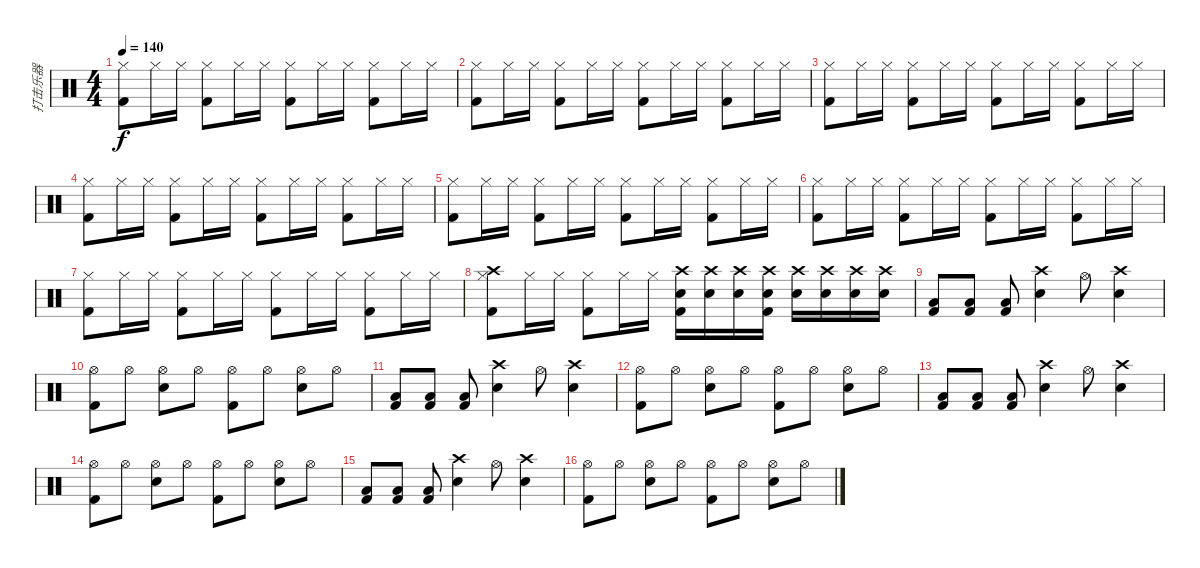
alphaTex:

\track ("打击乐器" "打击乐器") {instrument percussion}
\staff {score}
\articulation defaults
\ts (4 4)
\tempo 140
\clef neutral
\ks c
("Hi-Hat (closed)" "Kick (hit) 2").8{dy f} "Hi-Hat (closed)".16 "Hi-Hat (closed)".16 ("Hi-Hat (closed)" "Kick (hit) 2").8 "Hi-Hat (closed)".16 "Hi-Hat (closed)".16 ("Hi-Hat (closed)" "Kick (hit) 2").8 "Hi-Hat (closed)".16 "Hi-Hat (closed)".16 ("Hi-Hat (closed)" "Kick (hit) 2").8 "Hi-Hat (closed)".16 "Hi-Hat (closed)".16 |
("Hi-Hat (closed)" "Kick (hit) 2").8 "Hi-Hat (closed)".16 "Hi-Hat (closed)".16 ("Hi-Hat (closed)" "Kick (hit) 2").8 "Hi-Hat (closed)".16 "Hi-Hat (closed)".16 ("Hi-Hat (closed)" "Kick (hit) 2").8 "Hi-Hat (closed)".16 "Hi-Hat (closed)".16 ("Hi-Hat (closed)" "Kick (hit) 2").8 "Hi-Hat (closed)".16 "Hi-Hat (closed)".16 |
("Hi-Hat (closed)" "Kick (hit) 2").8 "Hi-Hat (closed)".16 "Hi-Hat (closed)".16 ("Hi-Hat (closed)" "Kick (hit) 2").8 "Hi-Hat (closed)".16 "Hi-Hat (closed)".16 ("Hi-Hat (closed)" "Kick (hit) 2").8 "Hi-Hat (closed)".16 "Hi-Hat (closed)".16 ("Hi-Hat (closed)" "Kick (hit) 2").8 "Hi-Hat (closed)".16 "Hi-Hat (closed)".16 |
("Hi-Hat (closed)" "Kick (hit) 2").8 "Hi-Hat (closed)".16 "Hi-Hat (closed)".16 ("Hi-Hat (closed)" "Kick (hit) 2").8 "Hi-Hat (closed)".16 "Hi-Hat (closed)".16 ("Hi-Hat (closed)" "Kick (hit) 2").8 "Hi-Hat (closed)".16 "Hi-Hat (closed)".16 ("Hi-Hat (closed)" "Kick (hit) 2").8 "Hi-Hat (closed)".16 "Hi-Hat (closed)".16 |
("Hi-Hat (closed)" "Kick (hit) 2").8 "Hi-Hat (closed)".16 "Hi-Hat (closed)".16 ("Hi-Hat (closed)" "Kick (hit) 2").8 "Hi-Hat (closed)".16 "Hi-Hat (closed)".16 ("Hi-Hat (closed)" "Kick (hit) 2").8 "Hi-Hat (closed)".16 "Hi-Hat (closed)".16 ("Hi-Hat (closed)" "Kick (hit) 2").8 "Hi-Hat (closed)".16 "Hi-Hat (closed)".16 |
("Hi-Hat (closed)" "Kick (hit) 2").8 "Hi-Hat (closed)".16 "Hi-Hat (closed)".16 ("Hi-Hat (closed)" "Kick (hit) 2").8 "Hi-Hat (closed)".16 "Hi-Hat (closed)".16 ("Hi-Hat (closed)" "Kick (hit) 2").8 "Hi-Hat (closed)".16 "Hi-Hat (closed)".16 ("Hi-Hat (closed)" "Kick (hit) 2").8 "Hi-Hat (closed)".16 "Hi-Hat (closed)".16 |
("Hi-Hat (closed)" "Kick (hit) 2").8 "Hi-Hat (closed)".16 "Hi-Hat (closed)".16 ("Hi-Hat (closed)" "Kick (hit) 2").8 "Hi-Hat (closed)".16 "Hi-Hat (closed)".16 ("Hi-Hat (closed)" "Kick (hit) 2").8 "Hi-Hat (closed)".16 "Hi-Hat (closed)".16 ("Hi-Hat (closed)" "Kick (hit) 2").8 "Hi-Hat (closed)".16 "Hi-Hat (closed)".16 |
("Crash high (hit)" "Hi-Hat (closed)" "Kick (hit) 2").8 "Hi-Hat (closed)".16 "Hi-Hat (closed)".16 ("Hi-Hat (closed)" "Kick (hit) 2").8 "Hi-Hat (closed)".16 "Hi-Hat (closed)".16 ("Crash high (hit)" "Snare (hit) 2" "Kick (hit) 2").16 ("Crash high (hit)" "Snare (hit) 2").16 ("Crash high (hit)" "Snare (hit) 2").16 ("Crash high (hit)" "Snare (hit) 2" "Kick (hit) 2").16 ("Crash high (hit)" "Snare (hit) 2").16 ("Crash high (hit)" "Snare (hit) 2").16 ("Crash high (hit)" "Snare (hit) 2").16 ("Crash high (hit)" "Snare (hit) 2").16 |
("Low Floor Tom (hit)" "Kick (hit) 2").8 ("Low Floor Tom (hit)" "Kick (hit) 2").8 ("Low Floor Tom (hit)" "Kick (hit) 2").8 ("Crash high (hit)" "Snare (hit) 2").4 "Hi-Hat (open)".8 ("Crash high (hit)" "Snare (hit) 2").4 |
("Hi-Hat (open)" "Kick (hit) 2").8 "Hi-Hat (open)".8 ("Hi-Hat (open)" "Snare (hit) 2").8 "Hi-Hat (open)".8 ("Hi-Hat (open)" "Kick (hit) 2").8 "Hi-Hat (open)".8 ("Hi-Hat (open)" "Snare (hit) 2").8 "Hi-Hat (open)".8 |
("Low Floor Tom (hit)" "Kick (hit) 2").8 ("Low Floor Tom (hit)" "Kick (hit) 2").8 ("Low Floor Tom (hit)" "Kick (hit) 2").8 ("Crash high (hit)" "Snare (hit) 2").4 "Hi-Hat (open)".8 ("Crash high (hit)" "Snare (hit) 2").4 |
("Hi-Hat (open)" "Kick (hit) 2").8 "Hi-Hat (open)".8 ("Hi-Hat (open)" "Snare (hit) 2").8 "Hi-Hat (open)".8 ("Hi-Hat (open)" "Kick (hit) 2").8 "Hi-Hat (open)".8 ("Hi-Hat (open)" "Snare (hit) 2").8 "Hi-Hat (open)".8 |
("Low Floor Tom (hit)" "Kick (hit) 2").8 ("Low Floor Tom (hit)" "Kick (hit) 2").8 ("Low Floor Tom (hit)" "Kick (hit) 2").8 ("Crash high (hit)" "Snare (hit) 2").4 "Hi-Hat (open)".8 ("Crash high (hit)" "Snare (hit) 2").4 |
("Hi-Hat (open)" "Kick (hit) 2").8 "Hi-Hat (open)".8 ("Hi-Hat (open)" "Snare (hit) 2").8 "Hi-Hat (open)".8 ("Hi-Hat (open)" "Kick (hit) 2").8 "Hi-Hat (open)".8 ("Hi-Hat (open)" "Snare (hit) 2").8 "Hi-Hat (open)".8 |
("Low Floor Tom (hit)" "Kick (hit) 2").8 ("Low Floor Tom (hit)" "Kick (hit) 2").8 ("Low Floor Tom (hit)" "Kick (hit) 2").8 ("Crash high (hit)" "Snare (hit) 2").4 "Hi-Hat (open)".8 ("Crash high (hit)" "Snare (hit) 2").4 |
("Hi-Hat (open)" "Kick (hit) 2").8 "Hi-Hat (open)".8 ("Hi-Hat (open)" "Snare (hit) 2").8 "Hi-Hat (open)".8 ("Hi-Hat (open)" "Kick (hit) 2").8 "Hi-Hat (open)".8 ("Hi-Hat (open)" "Snare (hit) 2").8 "Hi-Hat (open)".8
